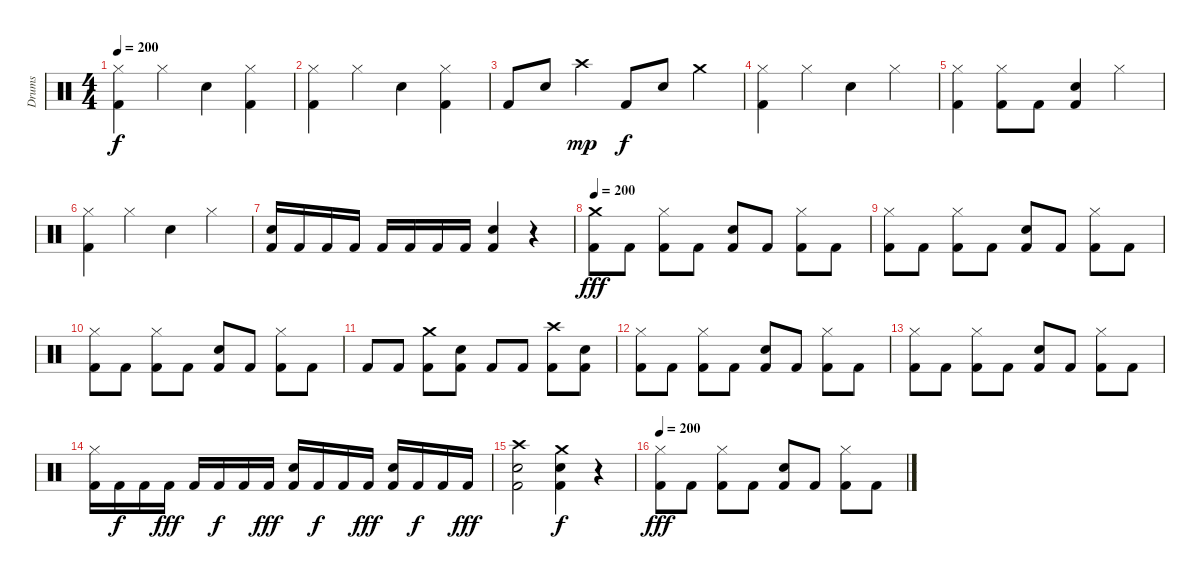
\track ("Drums" "Drums") {instrument percussion}
\staff {score}
\articulation defaults
\ts (4 4)
\tempo 200
\clef neutral
\ks c
("Hi-Hat (closed)" "Kick (hit) 2").4{dy f} "Hi-Hat (closed)".4 "Electric Snare (hit)".4 ("Hi-Hat (closed)" "Kick (hit) 2").4 |
("Hi-Hat (closed)" "Kick (hit) 2").4 "Hi-Hat (closed)".4 "Electric Snare (hit)".4 ("Hi-Hat (closed)" "Kick (hit) 2").4 |
"Kick (hit) 2".8 "Electric Snare (hit)".8 "Crash high (hit)".4{dy mp} "Kick (hit) 2".8{dy f} "Electric Snare (hit)".8 "Crash medium (hit)".4 |
("Hi-Hat (closed)" "Kick (hit) 2").4 "Hi-Hat (closed)".4 "Electric Snare (hit)".4 "Hi-Hat (closed)".4 |
("Hi-Hat (closed)" "Kick (hit) 2").4 ("Hi-Hat (closed)" "Kick (hit) 2").8 "Kick (hit) 2".8 ("Electric Snare (hit)" "Kick (hit) 2").4 "Hi-Hat (closed)".4 |
("Hi-Hat (closed)" "Kick (hit) 2").4 "Hi-Hat (closed)".4 "Electric Snare (hit)".4 "Hi-Hat (closed)".4 |
("Electric Snare (hit)" "Kick (hit) 2").16 "Kick (hit) 2".16 "Kick (hit) 2".16 "Kick (hit) 2".16 "Kick (hit) 2".16 "Kick (hit) 2".16 "Kick (hit) 2".16 "Kick (hit) 2".16 ("Electric Snare (hit)" "Kick (hit) 2").4 r.4 |
\tempo 200
("Crash medium (hit)" "Kick (hit) 2").8{dy fff} "Kick (hit) 2".8 ("Hi-Hat (closed)" "Kick (hit) 2").8 "Kick (hit) 2".8 ("Electric Snare (hit)" "Kick (hit) 2").8 "Kick (hit) 2".8 ("Hi-Hat (closed)" "Kick (hit) 2").8 "Kick (hit) 2".8 |
("Hi-Hat (closed)" "Kick (hit) 2").8 "Kick (hit) 2".8 ("Hi-Hat (closed)" "Kick (hit) 2").8 "Kick (hit) 2".8 ("Electric Snare (hit)" "Kick (hit) 2").8 "Kick (hit) 2".8 ("Hi-Hat (closed)" "Kick (hit) 2").8 "Kick (hit) 2".8 |
("Hi-Hat (closed)" "Kick (hit) 2").8 "Kick (hit) 2".8 ("Hi-Hat (closed)" "Kick (hit) 2").8 "Kick (hit) 2".8 ("Electric Snare (hit)" "Kick (hit) 2").8 "Kick (hit) 2".8 ("Hi-Hat (closed)" "Kick (hit) 2").8 "Kick (hit) 2".8 |
"Kick (hit) 2".8 "Kick (hit) 2".8 ("Crash medium (hit)" "Kick (hit) 2").8 ("Electric Snare (hit)" "Kick (hit) 2").8 "Kick (hit) 2".8 "Kick (hit) 2".8 ("Crash high (hit)" "Kick (hit) 2").8 ("Electric Snare (hit)" "Kick (hit) 2").8 |
("Hi-Hat (closed)" "Kick (hit) 2").8 "Kick (hit) 2".8 ("Hi-Hat (closed)" "Kick (hit) 2").8 "Kick (hit) 2".8 ("Electric Snare (hit)" "Kick (hit) 2").8 "Kick (hit) 2".8 ("Hi-Hat (closed)" "Kick (hit) 2").8 "Kick (hit) 2".8 |
("Hi-Hat (closed)" "Kick (hit) 2").8 "Kick (hit) 2".8 ("Hi-Hat (closed)" "Kick (hit) 2").8 "Kick (hit) 2".8 ("Electric Snare (hit)" "Kick (hit) 2").8 "Kick (hit) 2".8 ("Hi-Hat (closed)" "Kick (hit) 2").8 "Kick (hit) 2".8 |
("Hi-Hat (closed)" "Kick (hit) 2").16 "Kick (hit) 2".16{dy f} "Kick (hit) 2".16 "Kick (hit) 2".16{dy fff} "Kick (hit) 2".16 "Kick (hit) 2".16{dy f} "Kick (hit) 2".16 "Kick (hit) 2".16{dy fff} ("Electric Snare (hit)" "Kick (hit) 2").16 "Kick (hit) 2".16{dy f} "Kick (hit) 2".16 "Kick (hit) 2".16{dy fff} ("Electric Snare (hit)" "Kick (hit) 2").16 "Kick (hit) 2".16{dy f} "Kick (hit) 2".16 "Kick (hit) 2".16{dy fff} |
("Crash high (hit)" "Electric Snare (hit)" "Kick (hit) 2").2 ("Crash medium (hit)" "Electric Snare (hit)" "Kick (hit) 2").4{dy f} r.4 |
\tempo 200
("Hi-Hat (closed)" "Kick (hit) 2").8{dy fff} "Kick (hit) 2".8 ("Hi-Hat (closed)" "Kick (hit) 2").8 "Kick (hit) 2".8 ("Electric Snare (hit)" "Kick (hit) 2").8 "Kick (hit) 2".8 ("Hi-Hat (closed)" "Kick (hit) 2").8 "Kick (hit) 2".8
